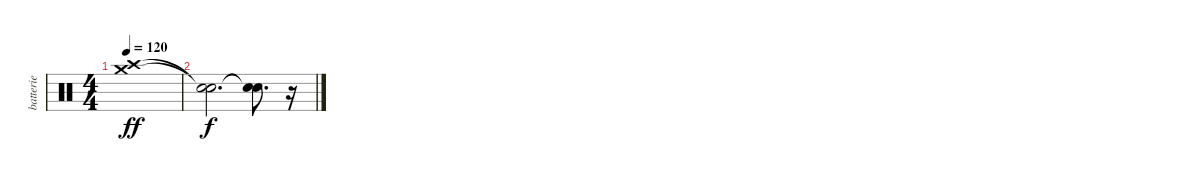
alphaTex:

\track ("batterie" "batterie") {instrument percussion}
\staff {score}
\articulation defaults
\ts (4 4)
\tempo 120
\clef neutral
\ks c
("Crash high (hit)" "Crash medium (hit)").1{dy ff} |
("Snare (hit)"{t} "Snare (hit)"{t}).2{d dy f} ("Snare (hit)"{t} "Snare (hit)"{t}).8{d} r.16
